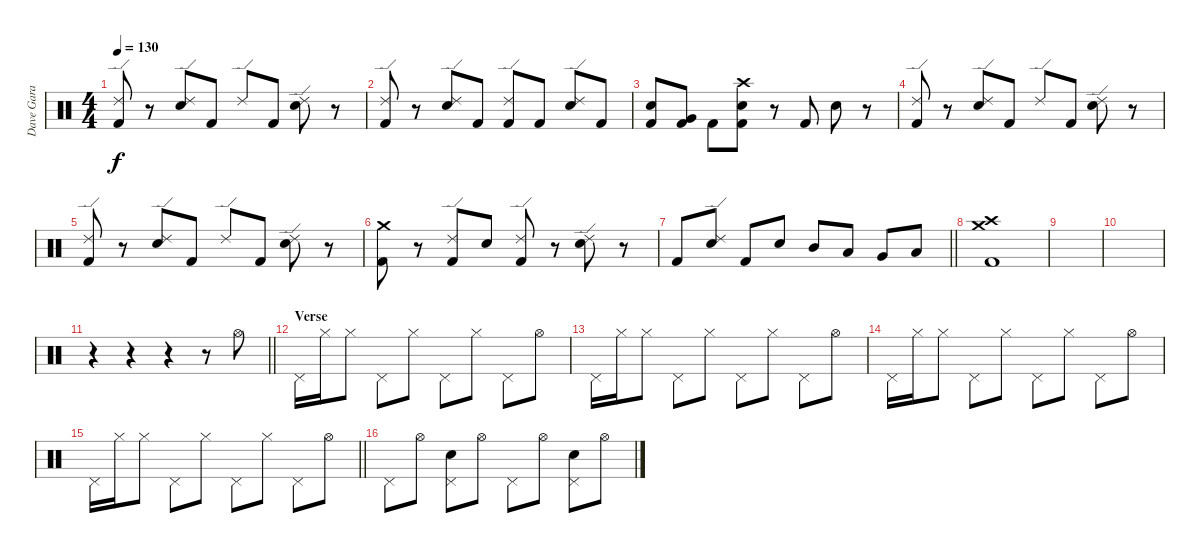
\track ("Dave Gara" "Dave Gara") {instrument percussion}
\staff {score}
\articulation defaults
\ts (4 4)
\tempo 130
\clef neutral
\ks c
("Ride (edge) 2" "Kick (hit) 2").8{dy f} r.8 ("Ride (edge) 2" "Electric Snare (hit)").8 "Kick (hit) 2".8 "Ride (edge) 2".8 "Kick (hit) 2".8 ("Ride (edge) 2" "Electric Snare (hit)").8 r.8 |
("Ride (edge) 2" "Kick (hit) 2").8 r.8 ("Ride (edge) 2" "Electric Snare (hit)").8 "Kick (hit) 2".8 ("Ride (edge) 2" "Kick (hit) 2").8 "Kick (hit) 2".8 ("Ride (edge) 2" "Electric Snare (hit)").8 "Kick (hit) 2".8 |
("Electric Snare (hit)" "Kick (hit) 2").8 ("Very Low Tom (hit)" "Kick (hit) 2").8 "Kick (hit) 2".8 ("Crash high (hit)" "Electric Snare (hit)" "Kick (hit) 2").8 r.8 "Kick (hit) 2".8 "Electric Snare (hit)".8 r.8 |
("Ride (edge) 2" "Kick (hit) 2").8 r.8 ("Ride (edge) 2" "Electric Snare (hit)").8 "Kick (hit) 2".8 "Ride (edge) 2".8 "Kick (hit) 2".8 ("Ride (edge) 2" "Electric Snare (hit)").8 r.8 |
("Ride (edge) 2" "Kick (hit) 2").8 r.8 ("Ride (edge) 2" "Electric Snare (hit)").8 "Kick (hit) 2".8 "Ride (edge) 2".8 "Kick (hit) 2".8 ("Ride (edge) 2" "Electric Snare (hit)").8 r.8 |
("Crash medium (hit)" "Kick (hit) 2").8 r.8 ("Ride (edge) 2" "Kick (hit) 2").8 "Electric Snare (hit)".8 ("Ride (edge) 2" "Kick (hit) 2").8 r.8 ("Ride (edge) 2" "Electric Snare (hit)").8 r.8 |
\barLineRight lightlight "Kick (hit) 2".8
("Ride (edge) 2" "Electric Snare (hit)").8 "Kick (hit) 2".8 "Electric Snare (hit)".8 "Mid Tom (hit)".8 "Low Tom (hit)".8 "Very Low Tom (hit)".8 "Low Floor Tom (hit)".8 |
("Crash high (hit)" "Crash medium (hit)" "Kick (hit) 2").1 |
|
|
\barLineRight lightlight
r.4 r.4 r.4 r.8 "Hi-Hat (open)".8 |
\section ("" "Verse")
"Pedal Hi-Hat (hit)".16 "Hi-Hat (closed)".16 "Hi-Hat (closed)".8 "Pedal Hi-Hat (hit)".8 "Hi-Hat (closed)".8 "Pedal Hi-Hat (hit)".8 "Hi-Hat (closed)".8 "Pedal Hi-Hat (hit)".8 "Hi-Hat (open)".8 |
"Pedal Hi-Hat (hit)".16 "Hi-Hat (closed)".16 "Hi-Hat (closed)".8 "Pedal Hi-Hat (hit)".8 "Hi-Hat (closed)".8 "Pedal Hi-Hat (hit)".8 "Hi-Hat (closed)".8 "Pedal Hi-Hat (hit)".8 "Hi-Hat (open)".8 |
"Pedal Hi-Hat (hit)".16 "Hi-Hat (closed)".16 "Hi-Hat (closed)".8 "Pedal Hi-Hat (hit)".8 "Hi-Hat (closed)".8 "Pedal Hi-Hat (hit)".8 "Hi-Hat (closed)".8 "Pedal Hi-Hat (hit)".8 "Hi-Hat (open)".8 |
\barLineRight lightlight "Pedal Hi-Hat (hit)".16 "Hi-Hat (closed)".16 "Hi-Hat (closed)".8 "Pedal Hi-Hat (hit)".8 "Hi-Hat (closed)".8 "Pedal Hi-Hat (hit)".8 "Hi-Hat (closed)".8 "Pedal Hi-Hat (hit)".8 "Hi-Hat (open)".8
|
"Pedal Hi-Hat (hit)".8 "Hi-Hat (open)".8 ("Pedal Hi-Hat (hit)" "Electric Snare (hit)").8 "Hi-Hat (open)".8 "Pedal Hi-Hat (hit)".8 "Hi-Hat (open)".8 ("Pedal Hi-Hat (hit)" "Electric Snare (hit)").8 "Hi-Hat (open)".8
